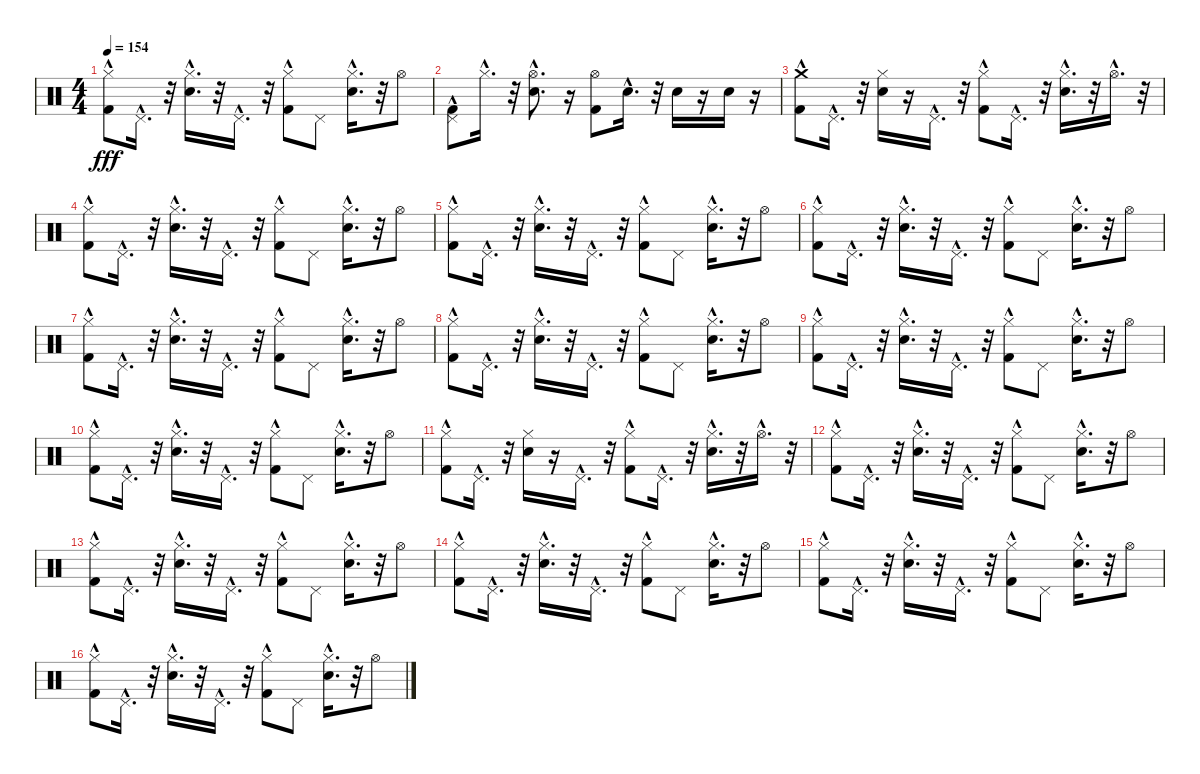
\track "" {instrument percussion}
\staff {score}
\articulation defaults
\ts (4 4)
\tempo 154
\clef neutral
\ks c
("Kick (hit) 2" "Hi-Hat (closed)"{hac}).8{dy fff} "Pedal Hi-Hat (hit)"{hac}.16{d} r.32 ("Electric Snare (hit)"{hac} "Hi-Hat (closed)").16{d} r.32 "Pedal Hi-Hat (hit)"{hac}.16{d} r.32 ("Hi-Hat (closed)"{hac} "Kick (hit) 2").8 "Pedal Hi-Hat (hit)".8 ("Electric Snare (hit)"{hac} "Hi-Hat (closed)").16{d} r.32 "Hi-Hat (open)".8 |
("Kick (hit) 2" "Pedal Hi-Hat (hit)"{hac}).8 "Hi-Hat (closed)"{hac}.16{d} r.32 ("Hi-Hat (open)"{hac} "Electric Snare (hit)").8{d} r.16 ("Kick (hit) 2" "Hi-Hat (open)").8 "Electric Snare (hit)"{hac}.16{d} r.32 "Electric Snare (hit)".16 r.16 "Electric Snare (hit)".16 r.16 |
("Kick (hit) 2" "Crash medium (hit)"{hac}).8 "Pedal Hi-Hat (hit)"{hac}.16{d} r.32 ("Electric Snare (hit)" "Hi-Hat (closed)").16 r.16 "Pedal Hi-Hat (hit)"{hac}.16{d} r.32 ("Hi-Hat (closed)"{hac} "Kick (hit) 2").8 "Pedal Hi-Hat (hit)"{hac}.16{d} r.32 ("Electric Snare (hit)"{hac} "Hi-Hat (closed)"{hac}).16{d} r.32 "Hi-Hat (open)"{hac}.16{d} r.32 |
("Kick (hit) 2" "Hi-Hat (closed)"{hac}).8 "Pedal Hi-Hat (hit)"{hac}.16{d} r.32 ("Electric Snare (hit)"{hac} "Hi-Hat (closed)").16{d} r.32 "Pedal Hi-Hat (hit)"{hac}.16{d} r.32 ("Hi-Hat (closed)"{hac} "Kick (hit) 2").8 "Pedal Hi-Hat (hit)".8 ("Electric Snare (hit)"{hac} "Hi-Hat (closed)").16{d} r.32 "Hi-Hat (open)".8 |
("Kick (hit) 2" "Hi-Hat (closed)"{hac}).8 "Pedal Hi-Hat (hit)"{hac}.16{d} r.32 ("Electric Snare (hit)"{hac} "Hi-Hat (closed)").16{d} r.32 "Pedal Hi-Hat (hit)"{hac}.16{d} r.32 ("Hi-Hat (closed)"{hac} "Kick (hit) 2").8 "Pedal Hi-Hat (hit)".8 ("Electric Snare (hit)"{hac} "Hi-Hat (closed)").16{d} r.32 "Hi-Hat (open)".8 |
("Kick (hit) 2" "Hi-Hat (closed)"{hac}).8 "Pedal Hi-Hat (hit)"{hac}.16{d} r.32 ("Electric Snare (hit)"{hac} "Hi-Hat (closed)").16{d} r.32 "Pedal Hi-Hat (hit)"{hac}.16{d} r.32 ("Hi-Hat (closed)"{hac} "Kick (hit) 2").8 "Pedal Hi-Hat (hit)".8 ("Electric Snare (hit)"{hac} "Hi-Hat (closed)").16{d} r.32 "Hi-Hat (open)".8 |
("Kick (hit) 2" "Hi-Hat (closed)"{hac}).8 "Pedal Hi-Hat (hit)"{hac}.16{d} r.32 ("Electric Snare (hit)"{hac} "Hi-Hat (closed)").16{d} r.32 "Pedal Hi-Hat (hit)"{hac}.16{d} r.32 ("Hi-Hat (closed)"{hac} "Kick (hit) 2").8 "Pedal Hi-Hat (hit)".8 ("Electric Snare (hit)"{hac} "Hi-Hat (closed)").16{d} r.32 "Hi-Hat (open)".8 |
("Kick (hit) 2" "Hi-Hat (closed)"{hac}).8 "Pedal Hi-Hat (hit)"{hac}.16{d} r.32 ("Electric Snare (hit)"{hac} "Hi-Hat (closed)").16{d} r.32 "Pedal Hi-Hat (hit)"{hac}.16{d} r.32 ("Hi-Hat (closed)"{hac} "Kick (hit) 2").8 "Pedal Hi-Hat (hit)".8 ("Electric Snare (hit)"{hac} "Hi-Hat (closed)").16{d} r.32 "Hi-Hat (open)".8 |
("Kick (hit) 2" "Hi-Hat (closed)"{hac}).8 "Pedal Hi-Hat (hit)"{hac}.16{d} r.32 ("Electric Snare (hit)"{hac} "Hi-Hat (closed)").16{d} r.32 "Pedal Hi-Hat (hit)"{hac}.16{d} r.32 ("Hi-Hat (closed)"{hac} "Kick (hit) 2").8 "Pedal Hi-Hat (hit)".8 ("Electric Snare (hit)"{hac} "Hi-Hat (closed)").16{d} r.32 "Hi-Hat (open)".8 |
("Kick (hit) 2" "Hi-Hat (closed)"{hac}).8 "Pedal Hi-Hat (hit)"{hac}.16{d} r.32 ("Electric Snare (hit)"{hac} "Hi-Hat (closed)").16{d} r.32 "Pedal Hi-Hat (hit)"{hac}.16{d} r.32 ("Hi-Hat (closed)"{hac} "Kick (hit) 2").8 "Pedal Hi-Hat (hit)".8 ("Electric Snare (hit)"{hac} "Hi-Hat (closed)").16{d} r.32 "Hi-Hat (open)".8 |
("Kick (hit) 2" "Hi-Hat (closed)"{hac}).8 "Pedal Hi-Hat (hit)"{hac}.16{d} r.32 ("Electric Snare (hit)" "Hi-Hat (closed)").16 r.16 "Pedal Hi-Hat (hit)"{hac}.16{d} r.32 ("Hi-Hat (closed)"{hac} "Kick (hit) 2").8 "Pedal Hi-Hat (hit)"{hac}.16{d} r.32 ("Electric Snare (hit)"{hac} "Hi-Hat (closed)"{hac}).16{d} r.32 "Hi-Hat (open)"{hac}.16{d} r.32 |
("Kick (hit) 2" "Hi-Hat (closed)"{hac}).8 "Pedal Hi-Hat (hit)"{hac}.16{d} r.32 ("Electric Snare (hit)"{hac} "Hi-Hat (closed)").16{d} r.32 "Pedal Hi-Hat (hit)"{hac}.16{d} r.32 ("Hi-Hat (closed)"{hac} "Kick (hit) 2").8 "Pedal Hi-Hat (hit)".8 ("Electric Snare (hit)"{hac} "Hi-Hat (closed)").16{d} r.32 "Hi-Hat (open)".8 |
("Kick (hit) 2" "Hi-Hat (closed)"{hac}).8 "Pedal Hi-Hat (hit)"{hac}.16{d} r.32 ("Electric Snare (hit)"{hac} "Hi-Hat (closed)").16{d} r.32 "Pedal Hi-Hat (hit)"{hac}.16{d} r.32 ("Hi-Hat (closed)"{hac} "Kick (hit) 2").8 "Pedal Hi-Hat (hit)".8 ("Electric Snare (hit)"{hac} "Hi-Hat (closed)").16{d} r.32 "Hi-Hat (open)".8 |
("Kick (hit) 2" "Hi-Hat (closed)"{hac}).8 "Pedal Hi-Hat (hit)"{hac}.16{d} r.32 ("Electric Snare (hit)"{hac} "Hi-Hat (closed)").16{d} r.32 "Pedal Hi-Hat (hit)"{hac}.16{d} r.32 ("Hi-Hat (closed)"{hac} "Kick (hit) 2").8 "Pedal Hi-Hat (hit)".8 ("Electric Snare (hit)"{hac} "Hi-Hat (closed)").16{d} r.32 "Hi-Hat (open)".8 |
("Kick (hit) 2" "Hi-Hat (closed)"{hac}).8 "Pedal Hi-Hat (hit)"{hac}.16{d} r.32 ("Electric Snare (hit)"{hac} "Hi-Hat (closed)").16{d} r.32 "Pedal Hi-Hat (hit)"{hac}.16{d} r.32 ("Hi-Hat (closed)"{hac} "Kick (hit) 2").8 "Pedal Hi-Hat (hit)".8 ("Electric Snare (hit)"{hac} "Hi-Hat (closed)").16{d} r.32 "Hi-Hat (open)".8 |
("Kick (hit) 2" "Hi-Hat (closed)"{hac}).8 "Pedal Hi-Hat (hit)"{hac}.16{d} r.32 ("Electric Snare (hit)"{hac} "Hi-Hat (closed)").16{d} r.32 "Pedal Hi-Hat (hit)"{hac}.16{d} r.32 ("Hi-Hat (closed)"{hac} "Kick (hit) 2").8 "Pedal Hi-Hat (hit)".8 ("Electric Snare (hit)"{hac} "Hi-Hat (closed)").16{d} r.32 "Hi-Hat (open)".8
